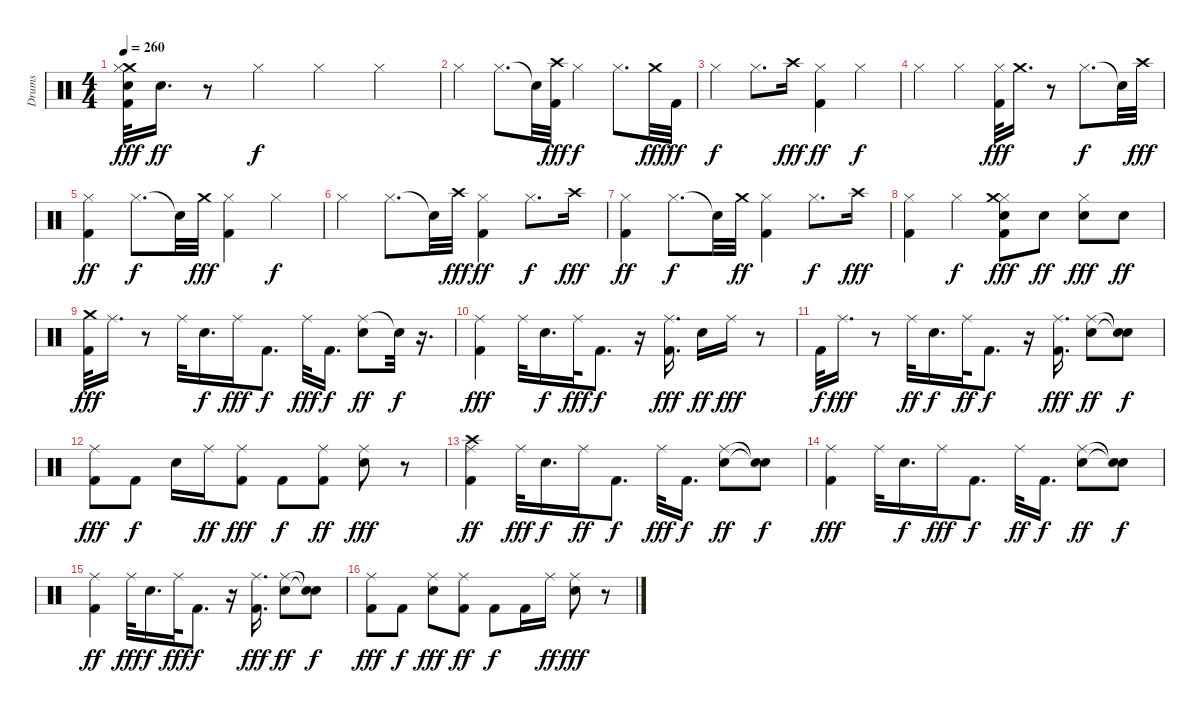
\track ("Drums" "Drums") {instrument percussion}
\staff {score}
\articulation defaults
\ts (4 4)
\tempo 260
\clef neutral
\ks c
("Crash medium (hit)" "Hi-Hat (closed)" "Kick (hit) 2" "Electric Snare (hit)").32{dy fff} "Snare (hit) 2".16{d dy ff} r.8 "Hi-Hat (closed)".4{dy f} "Hi-Hat (closed)".4 "Hi-Hat (closed)".4 |
"Hi-Hat (closed)".4 "Hi-Hat (closed)".8{d} "Snare (hit)"{t}.32 ("Crash high (hit)" "Kick (hit) 2").32{dy fff} "Hi-Hat (closed)".4{dy f} "Hi-Hat (closed)".8{d} "Crash medium (hit)".32{dy fff} "Kick (hit) 2".32{dy ff} |
"Hi-Hat (closed)".4{dy f} "Hi-Hat (closed)".8{d} "Crash high (hit)".16{dy fff} ("Kick (hit) 2" "Hi-Hat (closed)").4{dy ff} "Hi-Hat (closed)".4{dy f} |
"Hi-Hat (closed)".4 "Hi-Hat (closed)".4 ("Kick (hit) 2" "Hi-Hat (closed)").32{dy fff} "Crash medium (hit)".16{d} r.8 "Hi-Hat (closed)".8{d dy f} "Snare (hit)"{t}.32 "Crash high (hit)".32{dy fff} |
("Kick (hit) 2" "Hi-Hat (closed)").4{dy ff} "Hi-Hat (closed)".8{d dy f} "Snare (hit)"{t}.32 "Crash medium (hit)".32{dy fff} ("Kick (hit) 2" "Hi-Hat (closed)").4 "Hi-Hat (closed)".4{dy f} |
"Hi-Hat (closed)".4 "Hi-Hat (closed)".8{d} "Snare (hit)"{t}.32 "Crash high (hit)".32{dy fff} ("Kick (hit) 2" "Hi-Hat (closed)").4{dy ff} "Hi-Hat (closed)".8{d dy f} "Crash high (hit)".16{dy fff} |
("Hi-Hat (closed)" "Kick (hit) 2").4{dy ff} "Hi-Hat (closed)".8{d dy f} "Snare (hit)"{t}.32 "Crash medium (hit)".32{dy ff} ("Kick (hit) 2" "Hi-Hat (closed)").4 "Hi-Hat (closed)".8{d dy f} "Crash high (hit)".16{dy fff} |
("Hi-Hat (closed)" "Kick (hit) 2").4 "Hi-Hat (closed)".4{dy f} ("Hi-Hat (closed)" "Electric Snare (hit)" "Kick (hit) 2" "Crash medium (hit)").8{dy fff} "Electric Snare (hit)".8{dy ff} ("Hi-Hat (closed)" "Electric Snare (hit)").8{dy fff} "Electric Snare (hit)".8{dy ff} |
("Kick (hit) 2" "Crash medium (hit)").32{dy fff} "Ride (middle)".16{d} r.8 "Ride (middle)".32 "Snare (hit) 2".16{d dy f} "Ride (middle)".16{dy fff} "Kick (hit) 2".8{d dy f} "Ride (middle)".32{dy fff} "Kick (hit) 2".16{d dy f} ("Ride (middle)" "Snare (hit) 2").8{dy ff} "Snare (hit)"{t}.32{dy f} r.16{d} |
("Ride (middle)" "Kick (hit) 2").4{dy fff} "Ride (middle)".32 "Snare (hit) 2".16{d dy f} "Ride (middle)".32{dy fff} "Kick (hit) 2".8{d dy f} r.16 ("Ride (middle)" "Kick (hit) 2").16{d dy fff} "Snare (hit) 2".16{dy ff} "Ride (middle)".16{dy fff} r.8 |
"Kick (hit) 2".32{dy f} "Ride (middle)".16{d dy fff} r.8 "Ride (middle)".32{dy ff} "Snare (hit) 2".16{d dy f} "Ride (middle)".32{dy ff} "Kick (hit) 2".8{d dy f} r.16 ("Ride (middle)" "Kick (hit) 2").16{d dy fff} ("Ride (middle)" "Snare (hit) 2").8{dy ff} ("Snare (hit)"{t} "Snare (hit)"{t}).8{dy f} |
("Kick (hit) 2" "Ride (middle)").8{dy fff} "Kick (hit) 2".8{dy f} "Snare (hit) 2".16 "Ride (middle)".16{dy ff} ("Kick (hit) 2" "Ride (middle)").8{dy fff} "Kick (hit) 2".8{dy f} ("Kick (hit) 2" "Ride (middle)").8{dy ff} ("Ride (middle)" "Snare (hit) 2").8{dy fff} r.8 |
("Crash high (hit)" "Kick (hit) 2" "Ride (middle)").4{dy ff} "Ride (middle)".32{dy fff} "Snare (hit) 2".16{d dy f} "Ride (middle)".16{dy ff} "Kick (hit) 2".8{d dy f} "Ride (middle)".32{dy fff} "Kick (hit) 2".16{d dy f} ("Ride (middle)" "Snare (hit) 2").8{dy ff} ("Snare (hit)"{t} "Snare (hit)"{t}).8{dy f} |
("Ride (middle)" "Kick (hit) 2").4{dy fff} "Ride (middle)".32 "Snare (hit) 2".16{d dy f} "Ride (middle)".16{dy fff} "Kick (hit) 2".8{d dy f} "Ride (middle)".32{dy ff} "Kick (hit) 2".16{d dy f} ("Ride (middle)" "Snare (hit) 2").8{dy ff} ("Snare (hit)"{t} "Snare (hit)"{t}).8{dy f} |
("Kick (hit) 2" "Ride (middle)").4{dy ff} "Ride (middle)".32{dy fff} "Snare (hit) 2".16{d dy f} "Ride (middle)".32{dy fff} "Kick (hit) 2".8{d dy f} r.16 ("Ride (middle)" "Kick (hit) 2").16{d dy fff} ("Ride (middle)" "Snare (hit) 2").8{dy ff} ("Snare (hit)"{t} "Snare (hit)"{t}).8{dy f} |
("Ride (middle)" "Kick (hit) 2").8{dy fff} "Kick (hit) 2".8{dy f} ("Ride (middle)" "Snare (hit) 2").8{dy fff} ("Kick (hit) 2" "Ride (middle)").8{dy ff} "Kick (hit) 2".8{dy f} "Kick (hit) 2".16 "Ride (middle)".16{dy ff} ("Snare (hit) 2" "Ride (middle)").8{dy fff} r.8
